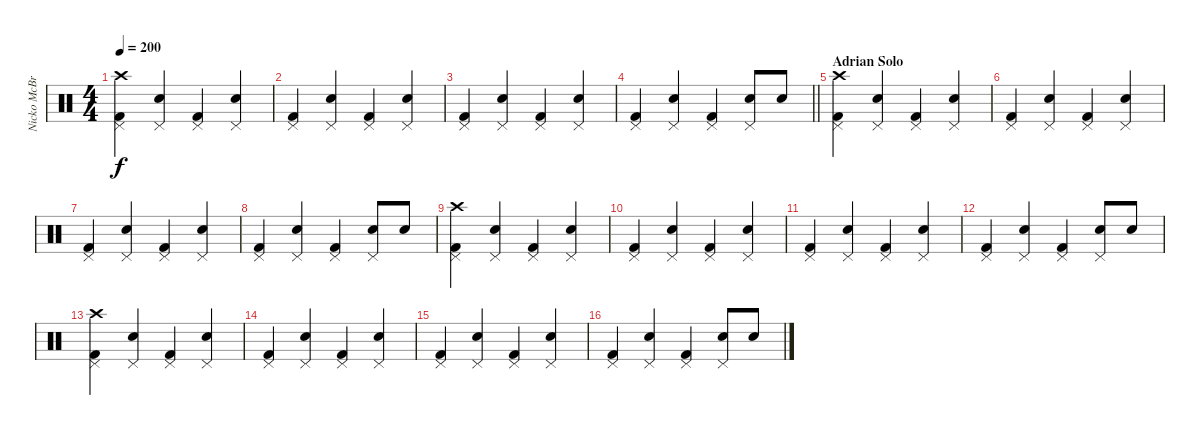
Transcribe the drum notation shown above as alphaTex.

\track ("Nicko McBrain" "Nicko McBr") {instrument percussion}
\staff {score}
\articulation defaults
\ts (4 4)
\tempo 200
\clef neutral
\ks c
("Pedal Hi-Hat (hit)" "Kick (hit) 2" "Crash high (hit)").4{dy f} ("Pedal Hi-Hat (hit)" "Snare (hit) 2").4 ("Pedal Hi-Hat (hit)" "Kick (hit) 2").4 ("Pedal Hi-Hat (hit)" "Snare (hit) 2").4 |
("Pedal Hi-Hat (hit)" "Kick (hit) 2").4 ("Pedal Hi-Hat (hit)" "Snare (hit) 2").4 ("Pedal Hi-Hat (hit)" "Kick (hit) 2").4 ("Pedal Hi-Hat (hit)" "Snare (hit) 2").4 |
("Pedal Hi-Hat (hit)" "Kick (hit) 2").4 ("Pedal Hi-Hat (hit)" "Snare (hit) 2").4 ("Pedal Hi-Hat (hit)" "Kick (hit) 2").4 ("Pedal Hi-Hat (hit)" "Snare (hit) 2").4 |
\barLineRight lightlight
("Pedal Hi-Hat (hit)" "Kick (hit) 2").4 ("Pedal Hi-Hat (hit)" "Snare (hit) 2").4 ("Pedal Hi-Hat (hit)" "Kick (hit) 2").4 ("Pedal Hi-Hat (hit)" "Snare (hit) 2").8 "Snare (hit) 2".8 |
\section ("" "Adrian Solo")
("Pedal Hi-Hat (hit)" "Kick (hit) 2" "Crash high (hit)").4 ("Pedal Hi-Hat (hit)" "Snare (hit) 2").4 ("Pedal Hi-Hat (hit)" "Kick (hit) 2").4 ("Pedal Hi-Hat (hit)" "Snare (hit) 2").4 |
("Pedal Hi-Hat (hit)" "Kick (hit) 2").4 ("Pedal Hi-Hat (hit)" "Snare (hit) 2").4 ("Pedal Hi-Hat (hit)" "Kick (hit) 2").4 ("Pedal Hi-Hat (hit)" "Snare (hit) 2").4 |
("Pedal Hi-Hat (hit)" "Kick (hit) 2").4 ("Pedal Hi-Hat (hit)" "Snare (hit) 2").4 ("Pedal Hi-Hat (hit)" "Kick (hit) 2").4 ("Pedal Hi-Hat (hit)" "Snare (hit) 2").4 |
("Pedal Hi-Hat (hit)" "Kick (hit) 2").4 ("Pedal Hi-Hat (hit)" "Snare (hit) 2").4 ("Pedal Hi-Hat (hit)" "Kick (hit) 2").4 ("Pedal Hi-Hat (hit)" "Snare (hit) 2").8 "Snare (hit) 2".8 |
("Pedal Hi-Hat (hit)" "Kick (hit) 2" "Crash high (hit)").4 ("Pedal Hi-Hat (hit)" "Snare (hit) 2").4 ("Pedal Hi-Hat (hit)" "Kick (hit) 2").4 ("Pedal Hi-Hat (hit)" "Snare (hit) 2").4 |
("Pedal Hi-Hat (hit)" "Kick (hit) 2").4 ("Pedal Hi-Hat (hit)" "Snare (hit) 2").4 ("Pedal Hi-Hat (hit)" "Kick (hit) 2").4 ("Pedal Hi-Hat (hit)" "Snare (hit) 2").4 |
("Pedal Hi-Hat (hit)" "Kick (hit) 2").4 ("Pedal Hi-Hat (hit)" "Snare (hit) 2").4 ("Pedal Hi-Hat (hit)" "Kick (hit) 2").4 ("Pedal Hi-Hat (hit)" "Snare (hit) 2").4 |
("Pedal Hi-Hat (hit)" "Kick (hit) 2").4 ("Pedal Hi-Hat (hit)" "Snare (hit) 2").4 ("Pedal Hi-Hat (hit)" "Kick (hit) 2").4 ("Pedal Hi-Hat (hit)" "Snare (hit) 2").8 "Snare (hit) 2".8 |
("Pedal Hi-Hat (hit)" "Kick (hit) 2" "Crash high (hit)").4 ("Pedal Hi-Hat (hit)" "Snare (hit) 2").4 ("Pedal Hi-Hat (hit)" "Kick (hit) 2").4 ("Pedal Hi-Hat (hit)" "Snare (hit) 2").4 |
("Pedal Hi-Hat (hit)" "Kick (hit) 2").4 ("Pedal Hi-Hat (hit)" "Snare (hit) 2").4 ("Pedal Hi-Hat (hit)" "Kick (hit) 2").4 ("Pedal Hi-Hat (hit)" "Snare (hit) 2").4 |
("Pedal Hi-Hat (hit)" "Kick (hit) 2").4 ("Pedal Hi-Hat (hit)" "Snare (hit) 2").4 ("Pedal Hi-Hat (hit)" "Kick (hit) 2").4 ("Pedal Hi-Hat (hit)" "Snare (hit) 2").4 |
("Pedal Hi-Hat (hit)" "Kick (hit) 2").4 ("Pedal Hi-Hat (hit)" "Snare (hit) 2").4 ("Pedal Hi-Hat (hit)" "Kick (hit) 2").4 ("Pedal Hi-Hat (hit)" "Snare (hit) 2").8 "Snare (hit) 2".8
